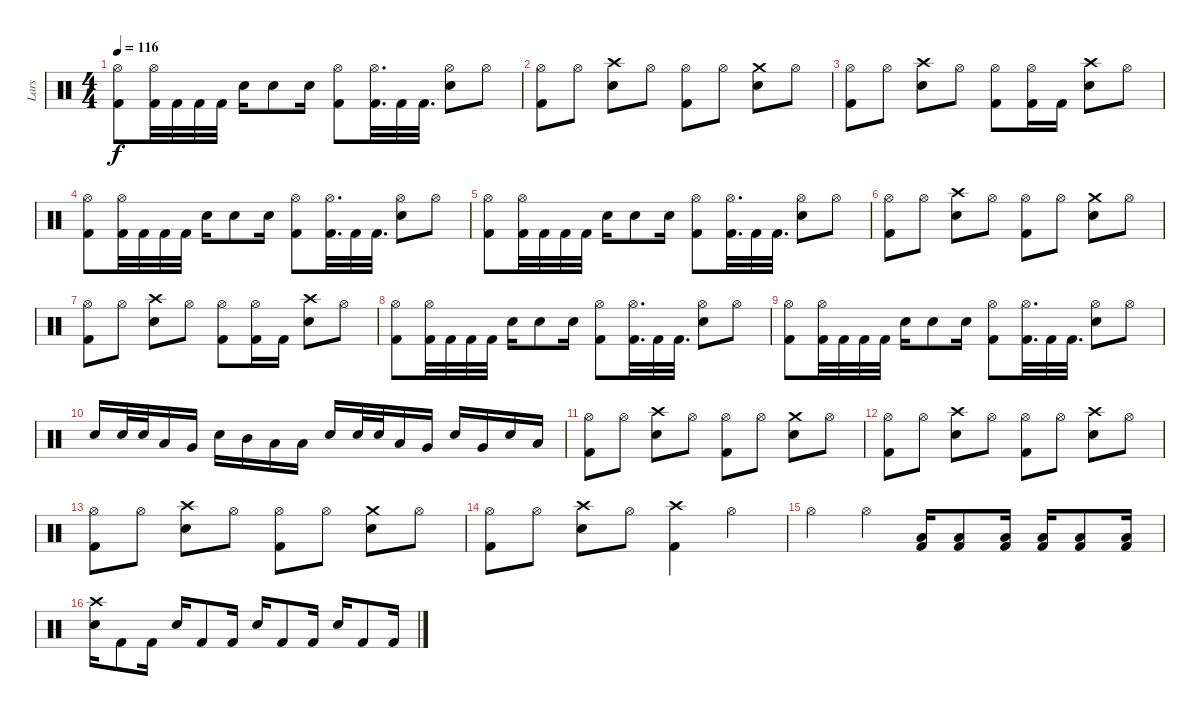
\track ("Lars" "Lars") {instrument percussion}
\staff {score}
\articulation defaults
\ts (4 4)
\tempo 116
\clef neutral
\ks c
("Kick (hit) 2" "Hi-Hat (open)").8{dy f} ("Hi-Hat (open)" "Kick (hit) 2").32 "Kick (hit) 2".32 "Kick (hit) 2".32 "Kick (hit) 2".32 "Snare (hit) 2".16 "Snare (hit) 2".8 "Snare (hit) 2".16 ("Hi-Hat (open)" "Kick (hit) 2").8 ("Kick (hit) 2" "Hi-Hat (open)").32{d} "Kick (hit) 2".32 "Kick (hit) 2".32{d} ("Snare (hit) 2" "Hi-Hat (open)").8 "Hi-Hat (open)".8 |
("Kick (hit) 2" "Hi-Hat (open)").8 "Hi-Hat (open)".8 ("Crash high (hit)" "Snare (hit) 2").8 "Hi-Hat (open)".8 ("Kick (hit) 2" "Hi-Hat (open)").8 "Hi-Hat (open)".8 ("Crash medium (hit)" "Snare (hit) 2").8 "Hi-Hat (open)".8 |
("Kick (hit) 2" "Hi-Hat (open)").8 "Hi-Hat (open)".8 ("Snare (hit) 2" "Crash high (hit)").8 "Hi-Hat (open)".8 ("Kick (hit) 2" "Hi-Hat (open)").8 ("Kick (hit) 2" "Hi-Hat (open)").16 "Kick (hit) 2".16 ("Crash high (hit)" "Snare (hit) 2").8 "Hi-Hat (open)".8 |
("Kick (hit) 2" "Hi-Hat (open)").8 ("Hi-Hat (open)" "Kick (hit) 2").32 "Kick (hit) 2".32 "Kick (hit) 2".32 "Kick (hit) 2".32 "Snare (hit) 2".16 "Snare (hit) 2".8 "Snare (hit) 2".16 ("Hi-Hat (open)" "Kick (hit) 2").8 ("Kick (hit) 2" "Hi-Hat (open)").32{d} "Kick (hit) 2".32 "Kick (hit) 2".32{d} ("Snare (hit) 2" "Hi-Hat (open)").8 "Hi-Hat (open)".8 |
("Kick (hit) 2" "Hi-Hat (open)").8 ("Hi-Hat (open)" "Kick (hit) 2").32 "Kick (hit) 2".32 "Kick (hit) 2".32 "Kick (hit) 2".32 "Snare (hit) 2".16 "Snare (hit) 2".8 "Snare (hit) 2".16 ("Hi-Hat (open)" "Kick (hit) 2").8 ("Kick (hit) 2" "Hi-Hat (open)").32{d} "Kick (hit) 2".32 "Kick (hit) 2".32{d} ("Snare (hit) 2" "Hi-Hat (open)").8 "Hi-Hat (open)".8 |
("Kick (hit) 2" "Hi-Hat (open)").8 "Hi-Hat (open)".8 ("Crash high (hit)" "Snare (hit) 2").8 "Hi-Hat (open)".8 ("Kick (hit) 2" "Hi-Hat (open)").8 "Hi-Hat (open)".8 ("Crash medium (hit)" "Snare (hit) 2").8 "Hi-Hat (open)".8 |
("Kick (hit) 2" "Hi-Hat (open)").8 "Hi-Hat (open)".8 ("Snare (hit) 2" "Crash high (hit)").8 "Hi-Hat (open)".8 ("Kick (hit) 2" "Hi-Hat (open)").8 ("Kick (hit) 2" "Hi-Hat (open)").16 "Kick (hit) 2".16 ("Crash high (hit)" "Snare (hit) 2").8 "Hi-Hat (open)".8 |
("Kick (hit) 2" "Hi-Hat (open)").8 ("Hi-Hat (open)" "Kick (hit) 2").32 "Kick (hit) 2".32 "Kick (hit) 2".32 "Kick (hit) 2".32 "Snare (hit) 2".16 "Snare (hit) 2".8 "Snare (hit) 2".16 ("Hi-Hat (open)" "Kick (hit) 2").8 ("Kick (hit) 2" "Hi-Hat (open)").32{d} "Kick (hit) 2".32 "Kick (hit) 2".32{d} ("Snare (hit) 2" "Hi-Hat (open)").8 "Hi-Hat (open)".8 |
("Kick (hit) 2" "Hi-Hat (open)").8 ("Hi-Hat (open)" "Kick (hit) 2").32 "Kick (hit) 2".32 "Kick (hit) 2".32 "Kick (hit) 2".32 "Snare (hit) 2".16 "Snare (hit) 2".8 "Snare (hit) 2".16 ("Hi-Hat (open)" "Kick (hit) 2").8 ("Kick (hit) 2" "Hi-Hat (open)").32{d} "Kick (hit) 2".32 "Kick (hit) 2".32{d} ("Snare (hit) 2" "Hi-Hat (open)").8 "Hi-Hat (open)".8 |
"Snare (hit) 2".16 "Snare (hit) 2".32 "Snare (hit) 2".32 "Low Tom (hit)".16 "Very Low Tom (hit)".16 "Snare (hit) 2".16 "Mid Tom (hit)".16 "Low Tom (hit)".16 "Low Floor Tom (hit)".16 "Snare (hit) 2".16 "Snare (hit) 2".32 "Snare (hit) 2".32 "Low Tom (hit)".16 "Very Low Tom (hit)".16 "Snare (hit) 2".16 "Very Low Tom (hit)".16 "Snare (hit) 2".16 "Low Floor Tom (hit)".16 |
("Kick (hit) 2" "Hi-Hat (open)").8 "Hi-Hat (open)".8 ("Crash high (hit)" "Snare (hit) 2").8 "Hi-Hat (open)".8 ("Kick (hit) 2" "Hi-Hat (open)").8 "Hi-Hat (open)".8 ("Crash medium (hit)" "Snare (hit) 2").8 "Hi-Hat (open)".8 |
("Kick (hit) 2" "Hi-Hat (open)").8 "Hi-Hat (open)".8 ("Crash high (hit)" "Snare (hit) 2").8 "Hi-Hat (open)".8 ("Kick (hit) 2" "Hi-Hat (open)").8 "Hi-Hat (open)".8 ("Crash high (hit)" "Snare (hit) 2").8 "Hi-Hat (open)".8 |
("Kick (hit) 2" "Hi-Hat (open)").8 "Hi-Hat (open)".8 ("Crash high (hit)" "Snare (hit) 2").8 "Hi-Hat (open)".8 ("Kick (hit) 2" "Hi-Hat (open)").8 "Hi-Hat (open)".8 ("Crash medium (hit)" "Snare (hit) 2").8 "Hi-Hat (open)".8 |
("Kick (hit) 2" "Hi-Hat (open)").8 "Hi-Hat (open)".8 ("Crash high (hit)" "Snare (hit) 2").8 "Hi-Hat (open)".8 ("Crash high (hit)" "Kick (hit) 2").4 "Hi-Hat (open)".4 |
"Hi-Hat (open)".4 "Hi-Hat (open)".4 ("Kick (hit) 2" "Low Floor Tom (hit)").16 ("Kick (hit) 2" "Low Floor Tom (hit)").8 ("Kick (hit) 2" "Low Floor Tom (hit)").16 ("Low Floor Tom (hit)" "Kick (hit) 2").16 ("Kick (hit) 2" "Low Floor Tom (hit)").8 ("Kick (hit) 2" "Low Floor Tom (hit)").16 |
("Snare (hit) 2" "Crash high (hit)").16 "Kick (hit) 2".8 "Kick (hit) 2".16 "Snare (hit) 2".16 "Kick (hit) 2".8 "Kick (hit) 2".16 "Snare (hit) 2".16 "Kick (hit) 2".8 "Kick (hit) 2".16 "Snare (hit) 2".16 "Kick (hit) 2".8 "Kick (hit) 2".16
